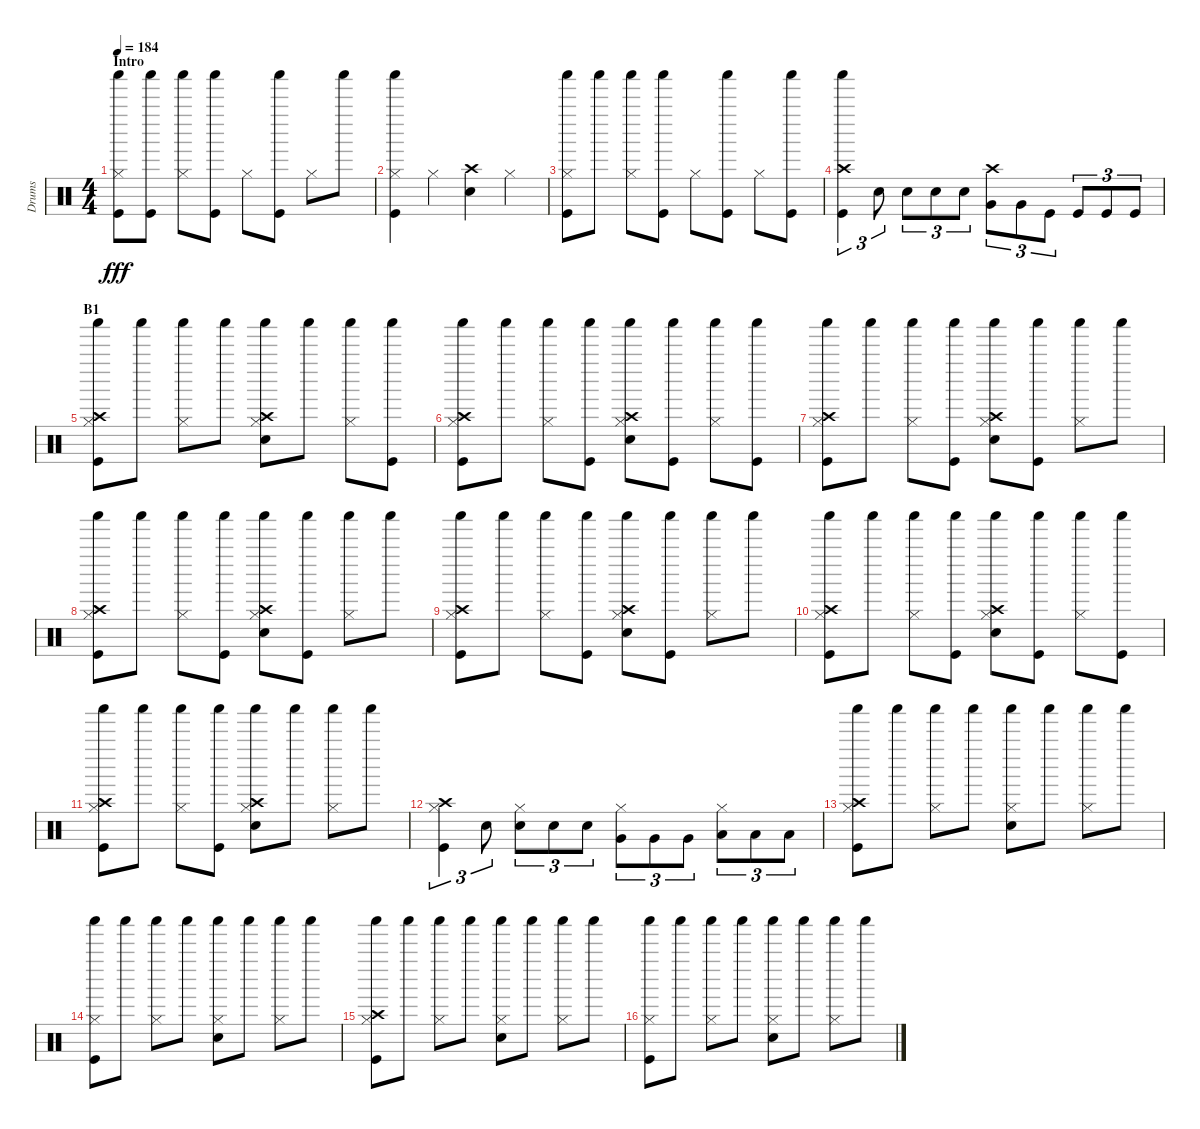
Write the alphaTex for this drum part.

\track ("Drums" "Drums") {instrument percussion}
\staff {score}
\articulation defaults
\ts (4 4)
\section ("" "Intro")
\tempo 184
\clef neutral
\ks c
("Hi-Hat (closed)" "Shaker (hit)" "Kick (hit)").8{dy fff} ("Shaker (hit)" "Kick (hit)").8 ("Hi-Hat (closed)" "Shaker (hit)").8 ("Shaker (hit)" "Kick (hit)").8 "Hi-Hat (closed)".8 ("Shaker (hit)" "Kick (hit)").8 "Hi-Hat (closed)".8 "Shaker (hit)".8 |
("Hi-Hat (closed)" "Shaker (hit)" "Kick (hit)").4 "Hi-Hat (closed)".4 ("Crash high (hit)" "Snare (hit) 2").4 "Hi-Hat (closed)".4 |
("Hi-Hat (closed)" "Shaker (hit)" "Kick (hit)").8 "Shaker (hit)".8 ("Hi-Hat (closed)" "Shaker (hit)").8 ("Shaker (hit)" "Kick (hit)").8 "Hi-Hat (closed)".8 ("Shaker (hit)" "Kick (hit)").8 "Hi-Hat (closed)".8 ("Shaker (hit)" "Kick (hit)").8 |
("Crash high (hit)" "Shaker (hit)" "Kick (hit)").4{tu (3 2)} "Snare (hit) 2".8{tu (3 2)} "Snare (hit) 2".8{tu (3 2)} "Snare (hit) 2".8{tu (3 2)} "Snare (hit) 2".8{tu (3 2)} ("Crash high (hit)" "Very Low Tom (hit)").8{tu (3 2)} "Very Low Tom (hit)".8{tu (3 2)} "Kick (hit)".8{tu (3 2)} "Kick (hit)".8{tu (3 2)} "Kick (hit)".8{tu (3 2)} "Kick (hit)".8{tu (3 2)} |
\section ("" "B1")
("Hi-Hat (closed)" "Crash high (hit)" "Shaker (hit)" "Kick (hit)").8 "Shaker (hit)".8 ("Hi-Hat (closed)" "Shaker (hit)").8 "Shaker (hit)".8 ("Hi-Hat (closed)" "Crash high (hit)" "Shaker (hit)" "Snare (hit) 2").8 "Shaker (hit)".8 ("Hi-Hat (closed)" "Shaker (hit)").8 ("Shaker (hit)" "Kick (hit)").8 |
("Hi-Hat (closed)" "Crash high (hit)" "Shaker (hit)" "Kick (hit)").8 "Shaker (hit)".8 ("Hi-Hat (closed)" "Shaker (hit)").8 ("Shaker (hit)" "Kick (hit)").8 ("Hi-Hat (closed)" "Crash high (hit)" "Shaker (hit)" "Snare (hit) 2").8 ("Shaker (hit)" "Kick (hit)").8 ("Hi-Hat (closed)" "Shaker (hit)").8 ("Shaker (hit)" "Kick (hit)").8 |
("Hi-Hat (closed)" "Crash high (hit)" "Shaker (hit)" "Kick (hit)").8 "Shaker (hit)".8 ("Hi-Hat (closed)" "Shaker (hit)").8 ("Shaker (hit)" "Kick (hit)").8 ("Hi-Hat (closed)" "Crash high (hit)" "Shaker (hit)" "Snare (hit) 2").8 ("Shaker (hit)" "Kick (hit)").8 ("Hi-Hat (closed)" "Shaker (hit)").8 "Shaker (hit)".8 |
("Hi-Hat (closed)" "Crash high (hit)" "Shaker (hit)" "Kick (hit)").8 "Shaker (hit)".8 ("Hi-Hat (closed)" "Shaker (hit)").8 ("Shaker (hit)" "Kick (hit)").8 ("Hi-Hat (closed)" "Crash high (hit)" "Shaker (hit)" "Snare (hit) 2").8 ("Shaker (hit)" "Kick (hit)").8 ("Hi-Hat (closed)" "Shaker (hit)").8 "Shaker (hit)".8 |
("Hi-Hat (closed)" "Crash high (hit)" "Shaker (hit)" "Kick (hit)").8 "Shaker (hit)".8 ("Hi-Hat (closed)" "Shaker (hit)").8 ("Shaker (hit)" "Kick (hit)").8 ("Hi-Hat (closed)" "Crash high (hit)" "Shaker (hit)" "Snare (hit) 2").8 ("Shaker (hit)" "Kick (hit)").8 ("Hi-Hat (closed)" "Shaker (hit)").8 "Shaker (hit)".8 |
("Hi-Hat (closed)" "Crash high (hit)" "Shaker (hit)" "Kick (hit)").8 "Shaker (hit)".8 ("Hi-Hat (closed)" "Shaker (hit)").8 ("Shaker (hit)" "Kick (hit)").8 ("Hi-Hat (closed)" "Crash high (hit)" "Shaker (hit)" "Snare (hit) 2").8 ("Shaker (hit)" "Kick (hit)").8 ("Hi-Hat (closed)" "Shaker (hit)").8 ("Shaker (hit)" "Kick (hit)").8 |
("Hi-Hat (closed)" "Crash high (hit)" "Shaker (hit)" "Kick (hit)").8 "Shaker (hit)".8 ("Hi-Hat (closed)" "Shaker (hit)").8 ("Shaker (hit)" "Kick (hit)").8 ("Hi-Hat (closed)" "Crash high (hit)" "Shaker (hit)" "Snare (hit) 2").8 "Shaker (hit)".8 ("Hi-Hat (closed)" "Shaker (hit)").8 "Shaker (hit)".8 |
("Hi-Hat (closed)" "Crash high (hit)" "Kick (hit)").4{tu (3 2)} "Snare (hit) 2".8{tu (3 2)} ("Hi-Hat (closed)" "Snare (hit) 2").8{tu (3 2)} "Snare (hit) 2".8{tu (3 2)} "Snare (hit) 2".8{tu (3 2)} ("Hi-Hat (closed)" "Very Low Tom (hit)").8{tu (3 2)} "Very Low Tom (hit)".8{tu (3 2)} "Very Low Tom (hit)".8{tu (3 2)} ("Hi-Hat (closed)" "Low Floor Tom (hit)").8{tu (3 2)} "Low Floor Tom (hit)".8{tu (3 2)} "Low Floor Tom (hit)".8{tu (3 2)} |
("Hi-Hat (closed)" "Crash high (hit)" "Shaker (hit)" "Kick (hit)").8 "Shaker (hit)".8 ("Hi-Hat (closed)" "Shaker (hit)").8 "Shaker (hit)".8 ("Hi-Hat (closed)" "Shaker (hit)" "Snare (hit) 2").8 "Shaker (hit)".8 ("Hi-Hat (closed)" "Shaker (hit)").8 "Shaker (hit)".8 |
("Hi-Hat (closed)" "Shaker (hit)" "Kick (hit)").8 "Shaker (hit)".8 ("Hi-Hat (closed)" "Shaker (hit)").8 "Shaker (hit)".8 ("Hi-Hat (closed)" "Shaker (hit)" "Snare (hit) 2").8 "Shaker (hit)".8 ("Hi-Hat (closed)" "Shaker (hit)").8 "Shaker (hit)".8 |
("Hi-Hat (closed)" "Crash high (hit)" "Shaker (hit)" "Kick (hit)").8 "Shaker (hit)".8 ("Hi-Hat (closed)" "Shaker (hit)").8 "Shaker (hit)".8 ("Hi-Hat (closed)" "Shaker (hit)" "Snare (hit) 2").8 "Shaker (hit)".8 ("Hi-Hat (closed)" "Shaker (hit)").8 "Shaker (hit)".8 |
("Hi-Hat (closed)" "Shaker (hit)" "Kick (hit)").8 "Shaker (hit)".8 ("Hi-Hat (closed)" "Shaker (hit)").8 "Shaker (hit)".8 ("Hi-Hat (closed)" "Shaker (hit)" "Snare (hit) 2").8 "Shaker (hit)".8 ("Hi-Hat (closed)" "Shaker (hit)").8 "Shaker (hit)".8
